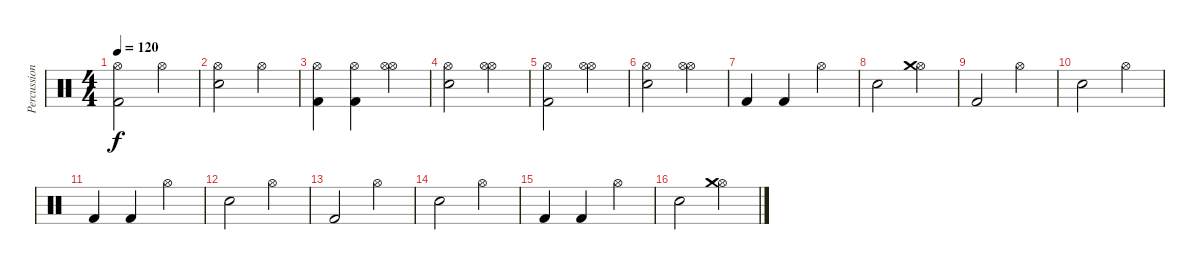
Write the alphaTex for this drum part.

\track ("Percussion" "Percussion") {instrument percussion}
\staff {score}
\articulation defaults
\ts (4 4)
\tempo 120
\clef neutral
\ks c
("Kick (hit) 2" "Hi-Hat (open)").2{dy f} "Hi-Hat (open)".4 |
("Snare (hit) 2" "Hi-Hat (open)").2 "Hi-Hat (open)".4 |
("Kick (hit) 2" "Hi-Hat (open)").4 ("Kick (hit) 2" "Hi-Hat (open)").4 ("Hi-Hat (open)" "Hi-Hat (open)").4 |
("Snare (hit) 2" "Hi-Hat (open)").2 ("Hi-Hat (open)" "Hi-Hat (open)").4 |
("Kick (hit) 2" "Hi-Hat (open)").2 ("Hi-Hat (open)" "Hi-Hat (open)").4 |
("Snare (hit) 2" "Hi-Hat (open)").2 ("Hi-Hat (open)" "Hi-Hat (open)").4 |
"Kick (hit) 2".4 "Kick (hit) 2".4 "Hi-Hat (open)".4 |
"Snare (hit) 2".2 ("Hi-Hat (open)" "Crash medium (hit)").4 |
"Kick (hit) 2".2 "Hi-Hat (open)".4 |
"Snare (hit) 2".2 "Hi-Hat (open)".4 |
"Kick (hit) 2".4 "Kick (hit) 2".4 "Hi-Hat (open)".4 |
"Snare (hit) 2".2 "Hi-Hat (open)".4 |
"Kick (hit) 2".2 "Hi-Hat (open)".4 |
"Snare (hit) 2".2 "Hi-Hat (open)".4 |
"Kick (hit) 2".4 "Kick (hit) 2".4 "Hi-Hat (open)".4 |
"Snare (hit) 2".2 ("Hi-Hat (open)" "Crash medium (hit)").4
